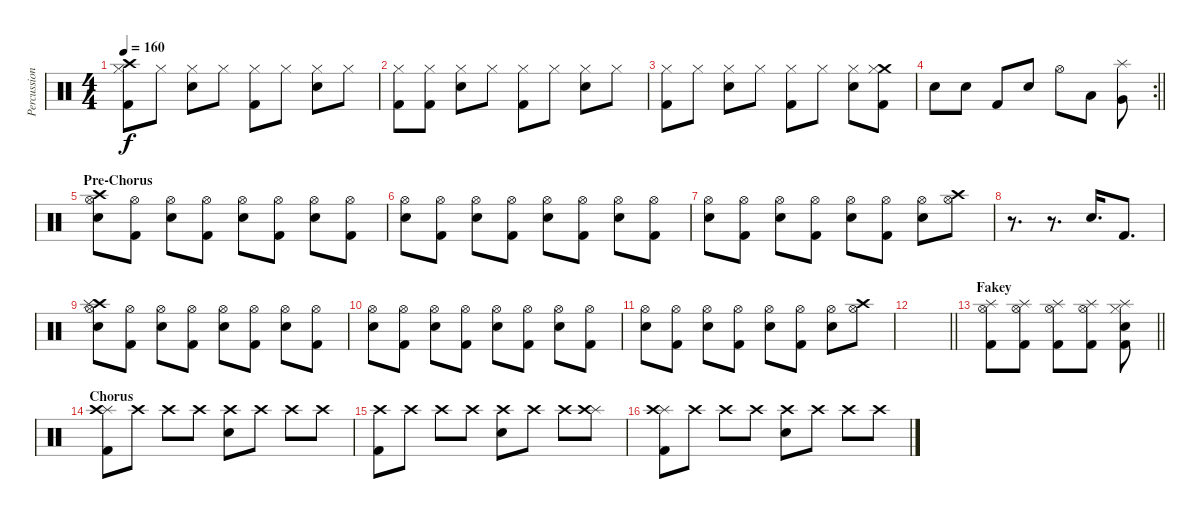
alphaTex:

\track ("Percussion" "Percussion") {instrument percussion}
\staff {score}
\articulation defaults
\ts (4 4)
\tempo 160
\clef neutral
\ks c
("Crash high (hit)" "Kick (hit) 2" "Hi-Hat (closed)").8{dy f} "Hi-Hat (closed)".8 ("Electric Snare (hit)" "Hi-Hat (closed)").8 "Hi-Hat (closed)".8 ("Kick (hit) 2" "Hi-Hat (closed)").8 "Hi-Hat (closed)".8 ("Electric Snare (hit)" "Hi-Hat (closed)").8 "Hi-Hat (closed)".8 |
("Kick (hit) 2" "Hi-Hat (closed)").8 ("Kick (hit) 2" "Hi-Hat (closed)").8 ("Electric Snare (hit)" "Hi-Hat (closed)").8 "Hi-Hat (closed)".8 ("Kick (hit) 2" "Hi-Hat (closed)").8 "Hi-Hat (closed)".8 ("Electric Snare (hit)" "Hi-Hat (closed)").8 "Hi-Hat (closed)".8 |
("Kick (hit) 2" "Hi-Hat (closed)").8 "Hi-Hat (closed)".8 ("Electric Snare (hit)" "Hi-Hat (closed)").8 "Hi-Hat (closed)".8 ("Kick (hit) 2" "Hi-Hat (closed)").8 "Hi-Hat (closed)".8 ("Electric Snare (hit)" "Hi-Hat (closed)").8 ("Crash medium (hit)" "Kick (hit) 2" "Hi-Hat (closed)").8 |
\rc 2
\barLineRight lightlight "Electric Snare (hit)".8 "Electric Snare (hit)".8 "Kick (hit) 2".8 "Electric Snare (hit)".8 "Hi-Hat (open)".8 "Low Tom (hit)".8
("Splash (hit)" "Very Low Tom (hit)").8 |
\section ("" "Pre-Chorus")
("Crash high (hit)" "Electric Snare (hit)" "Hi-Hat (open)").8 ("Kick (hit) 2" "Hi-Hat (open)").8 ("Electric Snare (hit)" "Hi-Hat (open)").8 ("Kick (hit) 2" "Hi-Hat (open)").8 ("Electric Snare (hit)" "Hi-Hat (open)").8 ("Kick (hit) 2" "Hi-Hat (open)").8 ("Electric Snare (hit)" "Hi-Hat (open)").8 ("Kick (hit) 2" "Hi-Hat (open)").8 |
("Electric Snare (hit)" "Hi-Hat (open)").8 ("Kick (hit) 2" "Hi-Hat (open)").8 ("Electric Snare (hit)" "Hi-Hat (open)").8 ("Kick (hit) 2" "Hi-Hat (open)").8 ("Electric Snare (hit)" "Hi-Hat (open)").8 ("Kick (hit) 2" "Hi-Hat (open)").8 ("Electric Snare (hit)" "Hi-Hat (open)").8 ("Kick (hit) 2" "Hi-Hat (open)").8 |
("Electric Snare (hit)" "Hi-Hat (open)").8 ("Kick (hit) 2" "Hi-Hat (open)").8 ("Electric Snare (hit)" "Hi-Hat (open)").8 ("Kick (hit) 2" "Hi-Hat (open)").8 ("Electric Snare (hit)" "Hi-Hat (open)").8 ("Kick (hit) 2" "Hi-Hat (open)").8 ("Electric Snare (hit)" "Hi-Hat (open)").8 ("Crash high (hit)" "Hi-Hat (open)").8 |
r.8{d} r.8{d} "Electric Snare (hit)".16{d} "Kick (hit) 2".8{d} |
("Crash high (hit)" "Splash (hit)" "Electric Snare (hit)" "Hi-Hat (open)").8 ("Kick (hit) 2" "Hi-Hat (open)").8 ("Electric Snare (hit)" "Hi-Hat (open)").8 ("Kick (hit) 2" "Hi-Hat (open)").8 ("Electric Snare (hit)" "Hi-Hat (open)").8 ("Kick (hit) 2" "Hi-Hat (open)").8 ("Electric Snare (hit)" "Hi-Hat (open)").8 ("Kick (hit) 2" "Hi-Hat (open)").8 |
("Electric Snare (hit)" "Hi-Hat (open)").8 ("Kick (hit) 2" "Hi-Hat (open)").8 ("Electric Snare (hit)" "Hi-Hat (open)").8 ("Kick (hit) 2" "Hi-Hat (open)").8 ("Electric Snare (hit)" "Hi-Hat (open)").8 ("Kick (hit) 2" "Hi-Hat (open)").8 ("Electric Snare (hit)" "Hi-Hat (open)").8 ("Kick (hit) 2" "Hi-Hat (open)").8 |
("Electric Snare (hit)" "Hi-Hat (open)").8 ("Kick (hit) 2" "Hi-Hat (open)").8 ("Electric Snare (hit)" "Hi-Hat (open)").8 ("Kick (hit) 2" "Hi-Hat (open)").8 ("Electric Snare (hit)" "Hi-Hat (open)").8 ("Kick (hit) 2" "Hi-Hat (open)").8 ("Electric Snare (hit)" "Hi-Hat (open)").8 ("Crash high (hit)" "Hi-Hat (open)").8 |
\barLineRight lightlight
|
\section ("" "Fakey")
\barLineRight lightlight
("Splash (hit)" "Kick (hit) 2" "Hi-Hat (open)").8 ("Splash (hit)" "Kick (hit) 2" "Hi-Hat (open)").8 ("Splash (hit)" "Kick (hit) 2" "Hi-Hat (open)").8 ("Splash (hit)" "Kick (hit) 2" "Hi-Hat (open)").8 ("Splash (hit)" "Kick (hit) 2" "Electric Snare (hit)" "Hi-Hat (closed)").8 |
\section ("" "Chorus")
("Splash (hit)" "Kick (hit) 2" "Crash high (hit)").8 "Crash high (hit)".8 "Crash high (hit)".8 "Crash high (hit)".8 ("Electric Snare (hit)" "Crash high (hit)").8 "Crash high (hit)".8 "Crash high (hit)".8 "Crash high (hit)".8 |
("Kick (hit) 2" "Crash high (hit)").8 "Crash high (hit)".8 "Crash high (hit)".8 "Crash high (hit)".8 ("Electric Snare (hit)" "Crash high (hit)").8 "Crash high (hit)".8 "Crash high (hit)".8 ("Splash (hit)" "Crash high (hit)").8 |
("Splash (hit)" "Kick (hit) 2" "Crash high (hit)").8 "Crash high (hit)".8 "Crash high (hit)".8 "Crash high (hit)".8 ("Electric Snare (hit)" "Crash high (hit)").8 "Crash high (hit)".8 "Crash high (hit)".8 "Crash high (hit)".8
